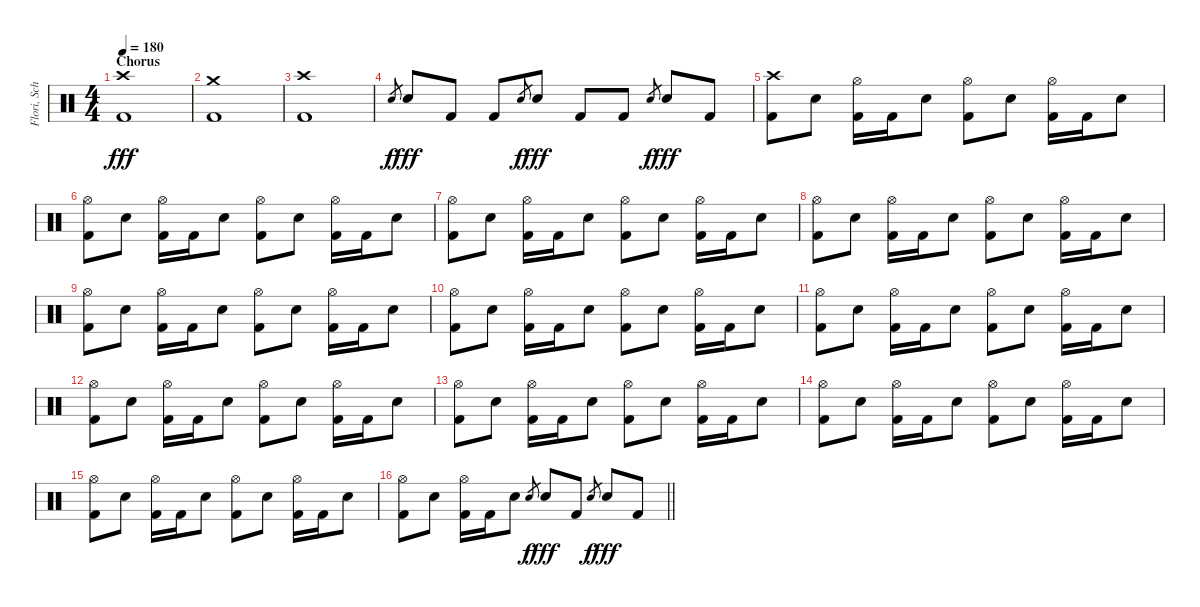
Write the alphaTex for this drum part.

\track ("Flori, Schlagzeug" "Flori, Sch") {instrument percussion}
\staff {score}
\articulation defaults
\ts (4 4)
\section ("" "Chorus")
\tempo 180
\clef neutral
\ks c
("Crash high (hit)" "Kick (hit) 2").1{dy fff} |
("Crash medium (hit)" "Kick (hit) 2").1 |
("Crash high (hit)" "Kick (hit) 2").1 |
"Electric Snare (hit)".8{gr dy f} "Electric Snare (hit)".8{dy fff} "Kick (hit) 2".8 "Kick (hit) 2".8 "Electric Snare (hit)".8{gr dy f} "Electric Snare (hit)".8{dy fff} "Kick (hit) 2".8 "Kick (hit) 2".8 "Electric Snare (hit)".8{gr dy f} "Electric Snare (hit)".8{dy fff} "Kick (hit) 2".8 |
("Crash high (hit)" "Kick (hit) 2").8 "Electric Snare (hit)".8 ("Hi-Hat (open)" "Kick (hit) 2").16 "Kick (hit) 2".16 "Electric Snare (hit)".8 ("Hi-Hat (open)" "Kick (hit) 2").8 "Electric Snare (hit)".8 ("Hi-Hat (open)" "Kick (hit) 2").16 "Kick (hit) 2".16 "Electric Snare (hit)".8 |
("Hi-Hat (open)" "Kick (hit) 2").8 "Electric Snare (hit)".8 ("Hi-Hat (open)" "Kick (hit) 2").16 "Kick (hit) 2".16 "Electric Snare (hit)".8 ("Hi-Hat (open)" "Kick (hit) 2").8 "Electric Snare (hit)".8 ("Hi-Hat (open)" "Kick (hit) 2").16 "Kick (hit) 2".16 "Electric Snare (hit)".8 |
("Hi-Hat (open)" "Kick (hit) 2").8 "Electric Snare (hit)".8 ("Hi-Hat (open)" "Kick (hit) 2").16 "Kick (hit) 2".16 "Electric Snare (hit)".8 ("Hi-Hat (open)" "Kick (hit) 2").8 "Electric Snare (hit)".8 ("Hi-Hat (open)" "Kick (hit) 2").16 "Kick (hit) 2".16 "Electric Snare (hit)".8 |
("Hi-Hat (open)" "Kick (hit) 2").8 "Electric Snare (hit)".8 ("Hi-Hat (open)" "Kick (hit) 2").16 "Kick (hit) 2".16 "Electric Snare (hit)".8 ("Hi-Hat (open)" "Kick (hit) 2").8 "Electric Snare (hit)".8 ("Hi-Hat (open)" "Kick (hit) 2").16 "Kick (hit) 2".16 "Electric Snare (hit)".8 |
("Hi-Hat (open)" "Kick (hit) 2").8 "Electric Snare (hit)".8 ("Hi-Hat (open)" "Kick (hit) 2").16 "Kick (hit) 2".16 "Electric Snare (hit)".8 ("Hi-Hat (open)" "Kick (hit) 2").8 "Electric Snare (hit)".8 ("Hi-Hat (open)" "Kick (hit) 2").16 "Kick (hit) 2".16 "Electric Snare (hit)".8 |
("Hi-Hat (open)" "Kick (hit) 2").8 "Electric Snare (hit)".8 ("Hi-Hat (open)" "Kick (hit) 2").16 "Kick (hit) 2".16 "Electric Snare (hit)".8 ("Hi-Hat (open)" "Kick (hit) 2").8 "Electric Snare (hit)".8 ("Hi-Hat (open)" "Kick (hit) 2").16 "Kick (hit) 2".16 "Electric Snare (hit)".8 |
("Hi-Hat (open)" "Kick (hit) 2").8 "Electric Snare (hit)".8 ("Hi-Hat (open)" "Kick (hit) 2").16 "Kick (hit) 2".16 "Electric Snare (hit)".8 ("Hi-Hat (open)" "Kick (hit) 2").8 "Electric Snare (hit)".8 ("Hi-Hat (open)" "Kick (hit) 2").16 "Kick (hit) 2".16 "Electric Snare (hit)".8 |
("Hi-Hat (open)" "Kick (hit) 2").8 "Electric Snare (hit)".8 ("Hi-Hat (open)" "Kick (hit) 2").16 "Kick (hit) 2".16 "Electric Snare (hit)".8 ("Hi-Hat (open)" "Kick (hit) 2").8 "Electric Snare (hit)".8 ("Hi-Hat (open)" "Kick (hit) 2").16 "Kick (hit) 2".16 "Electric Snare (hit)".8 |
("Hi-Hat (open)" "Kick (hit) 2").8 "Electric Snare (hit)".8 ("Hi-Hat (open)" "Kick (hit) 2").16 "Kick (hit) 2".16 "Electric Snare (hit)".8 ("Hi-Hat (open)" "Kick (hit) 2").8 "Electric Snare (hit)".8 ("Hi-Hat (open)" "Kick (hit) 2").16 "Kick (hit) 2".16 "Electric Snare (hit)".8 |
("Hi-Hat (open)" "Kick (hit) 2").8 "Electric Snare (hit)".8 ("Hi-Hat (open)" "Kick (hit) 2").16 "Kick (hit) 2".16 "Electric Snare (hit)".8 ("Hi-Hat (open)" "Kick (hit) 2").8 "Electric Snare (hit)".8 ("Hi-Hat (open)" "Kick (hit) 2").16 "Kick (hit) 2".16 "Electric Snare (hit)".8 |
("Hi-Hat (open)" "Kick (hit) 2").8 "Electric Snare (hit)".8 ("Hi-Hat (open)" "Kick (hit) 2").16 "Kick (hit) 2".16 "Electric Snare (hit)".8 ("Hi-Hat (open)" "Kick (hit) 2").8 "Electric Snare (hit)".8 ("Hi-Hat (open)" "Kick (hit) 2").16 "Kick (hit) 2".16 "Electric Snare (hit)".8 |
\barLineRight lightlight
("Hi-Hat (open)" "Kick (hit) 2").8 "Electric Snare (hit)".8 ("Hi-Hat (open)" "Kick (hit) 2").16 "Kick (hit) 2".16 "Electric Snare (hit)".8 "Electric Snare (hit)".8{gr dy f} "Electric Snare (hit)".8{dy fff} "Kick (hit) 2".8 "Electric Snare (hit)".8{gr dy f} "Electric Snare (hit)".8{dy fff} "Kick (hit) 2".8
